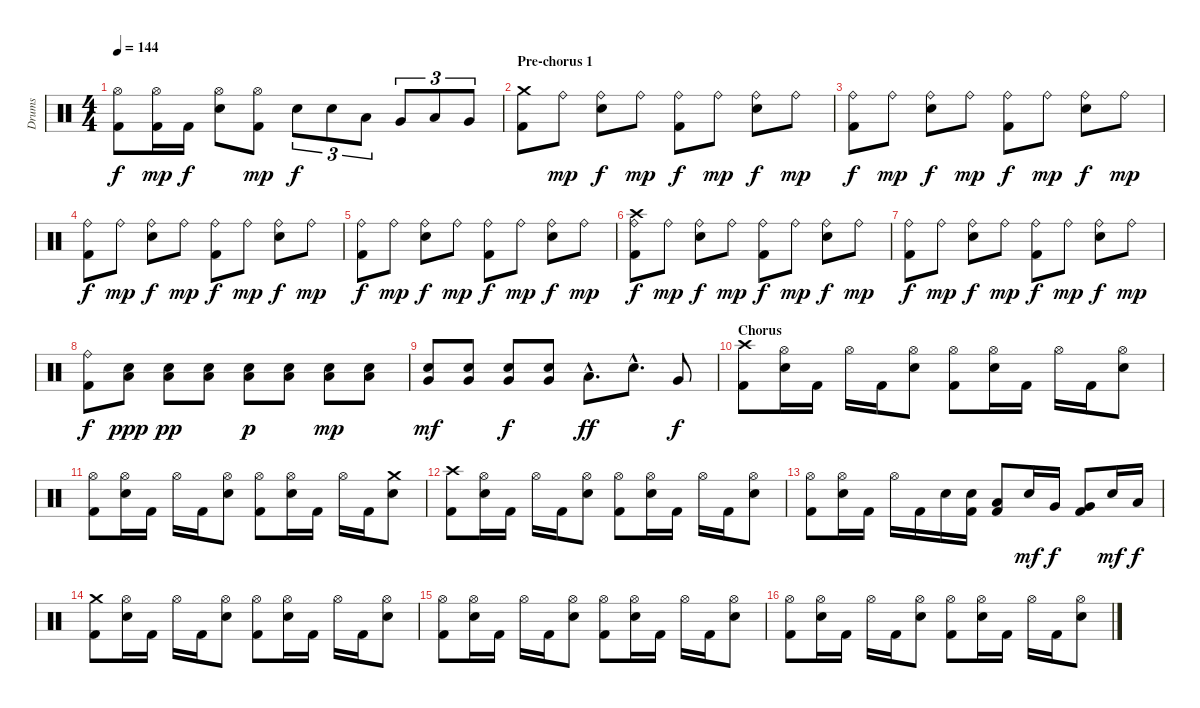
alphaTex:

\track ("Drums" "Drums") {instrument percussion}
\staff {score}
\articulation defaults
\ts (4 4)
\tempo 144
\clef neutral
\ks c
("Kick (hit) 2" "Hi-Hat (open)").8{dy f} ("Kick (hit) 2" "Hi-Hat (open)").16{dy mp} "Kick (hit) 2".16{dy f} ("Electric Snare (hit)" "Hi-Hat (open)").8 ("Kick (hit) 2" "Hi-Hat (open)").8{dy mp} "Electric Snare (hit)".8{tu (3 2) dy f} "Electric Snare (hit)".8{tu (3 2)} "Low Floor Tom (hit)".8{tu (3 2)} "Very Low Tom (hit)".8{tu (3 2)} "Low Tom (hit)".8{tu (3 2)} "Very Low Tom (hit)".8{tu (3 2)} |
\section ("" "Pre-chorus 1")
("Kick (hit) 2" "Crash medium (hit)").8 "Ride (bell)".8{dy mp} ("Electric Snare (hit)" "Ride (bell)").8{dy f} "Ride (bell)".8{dy mp} ("Kick (hit) 2" "Ride (bell)").8{dy f} "Ride (bell)".8{dy mp} ("Electric Snare (hit)" "Ride (bell)").8{dy f} "Ride (bell)".8{dy mp} |
("Kick (hit) 2" "Ride (bell)").8{dy f} "Ride (bell)".8{dy mp} ("Electric Snare (hit)" "Ride (bell)").8{dy f} "Ride (bell)".8{dy mp} ("Kick (hit) 2" "Ride (bell)").8{dy f} "Ride (bell)".8{dy mp} ("Electric Snare (hit)" "Ride (bell)").8{dy f} "Ride (bell)".8{dy mp} |
("Kick (hit) 2" "Ride (bell)").8{dy f} "Ride (bell)".8{dy mp} ("Electric Snare (hit)" "Ride (bell)").8{dy f} "Ride (bell)".8{dy mp} ("Kick (hit) 2" "Ride (bell)").8{dy f} "Ride (bell)".8{dy mp} ("Electric Snare (hit)" "Ride (bell)").8{dy f} "Ride (bell)".8{dy mp} |
("Kick (hit) 2" "Ride (bell)").8{dy f} "Ride (bell)".8{dy mp} ("Electric Snare (hit)" "Ride (bell)").8{dy f} "Ride (bell)".8{dy mp} ("Kick (hit) 2" "Ride (bell)").8{dy f} "Ride (bell)".8{dy mp} ("Electric Snare (hit)" "Ride (bell)").8{dy f} "Ride (bell)".8{dy mp} |
("Kick (hit) 2" "Ride (bell)" "Crash high (hit)").8{dy f} "Ride (bell)".8{dy mp} ("Electric Snare (hit)" "Ride (bell)").8{dy f} "Ride (bell)".8{dy mp} ("Kick (hit) 2" "Ride (bell)").8{dy f} "Ride (bell)".8{dy mp} ("Electric Snare (hit)" "Ride (bell)").8{dy f} "Ride (bell)".8{dy mp} |
("Kick (hit) 2" "Ride (bell)").8{dy f} "Ride (bell)".8{dy mp} ("Electric Snare (hit)" "Ride (bell)").8{dy f} "Ride (bell)".8{dy mp} ("Kick (hit) 2" "Ride (bell)").8{dy f} "Ride (bell)".8{dy mp} ("Electric Snare (hit)" "Ride (bell)").8{dy f} "Ride (bell)".8{dy mp} |
("Kick (hit) 2" "Ride (bell)").8{dy f} ("Low Floor Tom (hit)" "Electric Snare (hit)").8{dy ppp} ("Low Floor Tom (hit)" "Electric Snare (hit)").8{dy pp} ("Low Floor Tom (hit)" "Electric Snare (hit)").8 ("Low Floor Tom (hit)" "Electric Snare (hit)").8{dy p} ("Low Floor Tom (hit)" "Electric Snare (hit)").8 ("Low Floor Tom (hit)" "Electric Snare (hit)").8{dy mp} ("Low Floor Tom (hit)" "Electric Snare (hit)").8 |
("Very Low Tom (hit)" "Electric Snare (hit)").8{dy mf} ("Very Low Tom (hit)" "Electric Snare (hit)").8 ("Very Low Tom (hit)" "Electric Snare (hit)").8{dy f} ("Very Low Tom (hit)" "Electric Snare (hit)").8 "Low Tom (hit)"{hac}.8{d dy ff} "Electric Snare (hit)"{hac}.8{d} "Very Low Tom (hit)".8{dy f} |
\section ("" "Chorus")
("Kick (hit) 2" "Crash high (hit)").8 ("Electric Snare (hit)" "Hi-Hat (open)").16 "Kick (hit) 2".16 "Hi-Hat (open)".16 "Kick (hit) 2".16 ("Electric Snare (hit)" "Hi-Hat (open)").8 ("Kick (hit) 2" "Hi-Hat (open)").8 ("Electric Snare (hit)" "Hi-Hat (open)").16 "Kick (hit) 2".16 "Hi-Hat (open)".16 "Kick (hit) 2".16 ("Electric Snare (hit)" "Hi-Hat (open)").8 |
("Kick (hit) 2" "Hi-Hat (open)").8 ("Electric Snare (hit)" "Hi-Hat (open)").16 "Kick (hit) 2".16 "Hi-Hat (open)".16 "Kick (hit) 2".16 ("Electric Snare (hit)" "Hi-Hat (open)").8 ("Kick (hit) 2" "Hi-Hat (open)").8 ("Electric Snare (hit)" "Hi-Hat (open)").16 "Kick (hit) 2".16 "Hi-Hat (open)".16 "Kick (hit) 2".16 ("Electric Snare (hit)" "Crash medium (hit)").8 |
("Kick (hit) 2" "Crash high (hit)").8 ("Electric Snare (hit)" "Hi-Hat (open)").16 "Kick (hit) 2".16 "Hi-Hat (open)".16 "Kick (hit) 2".16 ("Electric Snare (hit)" "Hi-Hat (open)").8 ("Kick (hit) 2" "Hi-Hat (open)").8 ("Electric Snare (hit)" "Hi-Hat (open)").16 "Kick (hit) 2".16 "Hi-Hat (open)".16 "Kick (hit) 2".16 ("Electric Snare (hit)" "Hi-Hat (open)").8 |
("Kick (hit) 2" "Hi-Hat (open)").8 ("Electric Snare (hit)" "Hi-Hat (open)").16 "Kick (hit) 2".16 "Hi-Hat (open)".16 "Kick (hit) 2".16 "Electric Snare (hit)".16 ("Kick (hit) 2" "Electric Snare (hit)").16 ("Kick (hit) 2" "Low Tom (hit)").8 "Electric Snare (hit)".16{dy mf} "Very Low Tom (hit)".16{dy f} ("Kick (hit) 2" "Very Low Tom (hit)").8 "Electric Snare (hit)".16{dy mf} "Low Tom (hit)".16{dy f} |
("Kick (hit) 2" "Crash medium (hit)").8 ("Electric Snare (hit)" "Hi-Hat (open)").16 "Kick (hit) 2".16 "Hi-Hat (open)".16 "Kick (hit) 2".16 ("Electric Snare (hit)" "Hi-Hat (open)").8 ("Kick (hit) 2" "Hi-Hat (open)").8 ("Electric Snare (hit)" "Hi-Hat (open)").16 "Kick (hit) 2".16 "Hi-Hat (open)".16 "Kick (hit) 2".16 ("Electric Snare (hit)" "Hi-Hat (open)").8 |
("Kick (hit) 2" "Hi-Hat (open)").8 ("Electric Snare (hit)" "Hi-Hat (open)").16 "Kick (hit) 2".16 "Hi-Hat (open)".16 "Kick (hit) 2".16 ("Electric Snare (hit)" "Hi-Hat (open)").8 ("Kick (hit) 2" "Hi-Hat (open)").8 ("Electric Snare (hit)" "Hi-Hat (open)").16 "Kick (hit) 2".16 "Hi-Hat (open)".16 "Kick (hit) 2".16 ("Electric Snare (hit)" "Hi-Hat (open)").8 |
("Kick (hit) 2" "Hi-Hat (open)").8 ("Electric Snare (hit)" "Hi-Hat (open)").16 "Kick (hit) 2".16 "Hi-Hat (open)".16 "Kick (hit) 2".16 ("Electric Snare (hit)" "Hi-Hat (open)").8 ("Kick (hit) 2" "Hi-Hat (open)").8 ("Electric Snare (hit)" "Hi-Hat (open)").16 "Kick (hit) 2".16 "Hi-Hat (open)".16 "Kick (hit) 2".16 ("Electric Snare (hit)" "Hi-Hat (open)").8
